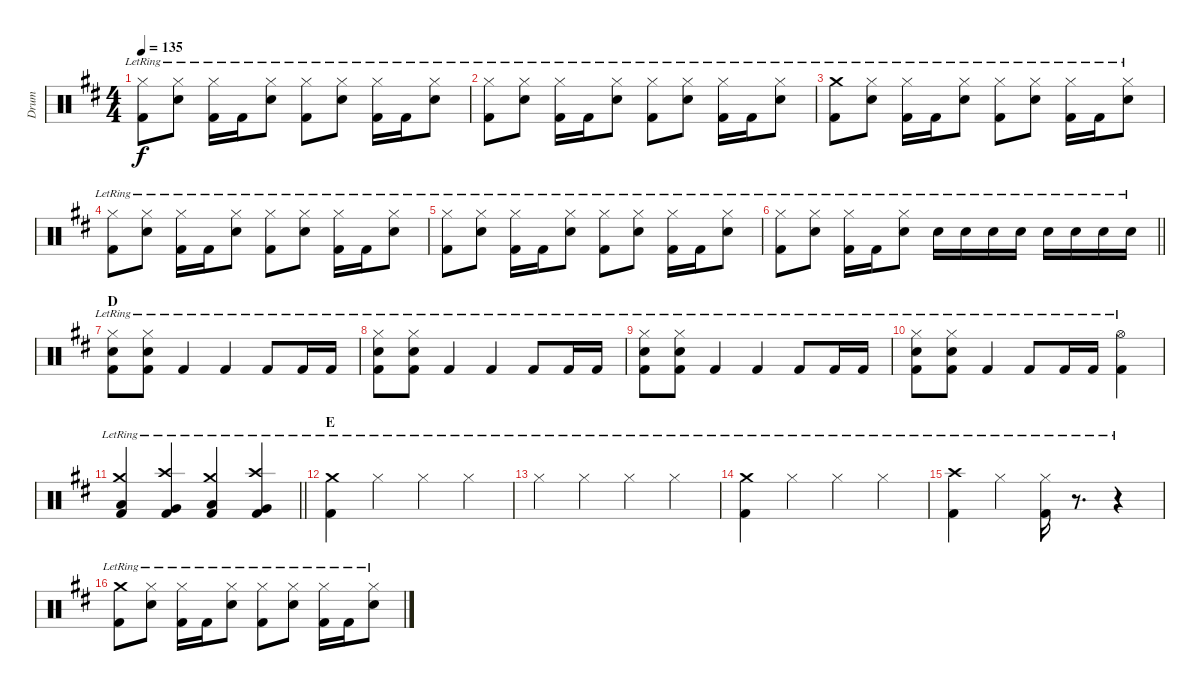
\track ("Drum" "Drum") {instrument percussion}
\staff {score}
\articulation defaults
\ts (4 4)
\tempo 135
\clef neutral
\ks bminor
("Hi-Hat (closed)"{lr} "Kick (hit) 2"{lr}).8{dy f} ("Hi-Hat (closed)"{lr} "Snare (hit) 2"{lr}).8 ("Hi-Hat (closed)"{lr} "Kick (hit) 2"{lr}).16 "Kick (hit) 2"{lr}.16 ("Hi-Hat (closed)"{lr} "Snare (hit) 2"{lr}).8 ("Hi-Hat (closed)"{lr} "Kick (hit) 2"{lr}).8 ("Hi-Hat (closed)"{lr} "Snare (hit) 2"{lr}).8 ("Hi-Hat (closed)"{lr} "Kick (hit) 2"{lr}).16 "Kick (hit) 2"{lr}.16 ("Hi-Hat (closed)"{lr} "Snare (hit) 2"{lr}).8 |
("Hi-Hat (closed)"{lr} "Kick (hit) 2"{lr}).8 ("Hi-Hat (closed)"{lr} "Snare (hit) 2"{lr}).8 ("Hi-Hat (closed)"{lr} "Kick (hit) 2"{lr}).16 "Kick (hit) 2"{lr}.16 ("Hi-Hat (closed)"{lr} "Snare (hit) 2"{lr}).8 ("Hi-Hat (closed)"{lr} "Kick (hit) 2"{lr}).8 ("Hi-Hat (closed)"{lr} "Snare (hit) 2"{lr}).8 ("Hi-Hat (closed)"{lr} "Kick (hit) 2"{lr}).16 "Kick (hit) 2"{lr}.16 ("Hi-Hat (closed)"{lr} "Snare (hit) 2"{lr}).8 |
("Crash medium (hit)"{lr} "Kick (hit) 2"{lr}).8 ("Hi-Hat (closed)"{lr} "Snare (hit) 2"{lr}).8 ("Hi-Hat (closed)"{lr} "Kick (hit) 2"{lr}).16 "Kick (hit) 2"{lr}.16 ("Hi-Hat (closed)"{lr} "Snare (hit) 2"{lr}).8 ("Hi-Hat (closed)"{lr} "Kick (hit) 2"{lr}).8 ("Hi-Hat (closed)"{lr} "Snare (hit) 2"{lr}).8 ("Hi-Hat (closed)"{lr} "Kick (hit) 2"{lr}).16 "Kick (hit) 2"{lr}.16 ("Hi-Hat (closed)"{lr} "Snare (hit) 2"{lr}).8 |
("Hi-Hat (closed)"{lr} "Kick (hit) 2"{lr}).8 ("Hi-Hat (closed)"{lr} "Snare (hit) 2"{lr}).8 ("Hi-Hat (closed)"{lr} "Kick (hit) 2"{lr}).16 "Kick (hit) 2"{lr}.16 ("Hi-Hat (closed)"{lr} "Snare (hit) 2"{lr}).8 ("Hi-Hat (closed)"{lr} "Kick (hit) 2"{lr}).8 ("Hi-Hat (closed)"{lr} "Snare (hit) 2"{lr}).8 ("Hi-Hat (closed)"{lr} "Kick (hit) 2"{lr}).16 "Kick (hit) 2"{lr}.16 ("Hi-Hat (closed)"{lr} "Snare (hit) 2"{lr}).8 |
("Hi-Hat (closed)"{lr} "Kick (hit) 2"{lr}).8 ("Hi-Hat (closed)"{lr} "Snare (hit) 2"{lr}).8 ("Hi-Hat (closed)"{lr} "Kick (hit) 2"{lr}).16 "Kick (hit) 2"{lr}.16 ("Hi-Hat (closed)"{lr} "Snare (hit) 2"{lr}).8 ("Hi-Hat (closed)"{lr} "Kick (hit) 2"{lr}).8 ("Hi-Hat (closed)"{lr} "Snare (hit) 2"{lr}).8 ("Hi-Hat (closed)"{lr} "Kick (hit) 2"{lr}).16 "Kick (hit) 2"{lr}.16 ("Hi-Hat (closed)"{lr} "Snare (hit) 2"{lr}).8 |
\barLineRight lightlight
("Hi-Hat (closed)"{lr} "Kick (hit) 2"{lr}).8 ("Hi-Hat (closed)"{lr} "Snare (hit) 2"{lr}).8 ("Hi-Hat (closed)"{lr} "Kick (hit) 2"{lr}).16 "Kick (hit) 2"{lr}.16 ("Hi-Hat (closed)"{lr} "Snare (hit) 2"{lr}).8 "Snare (hit) 2"{lr}.16 "Snare (hit) 2"{lr}.16 "Snare (hit) 2"{lr}.16 "Snare (hit) 2"{lr}.16 "Snare (hit) 2"{lr}.16 "Snare (hit) 2"{lr}.16 "Snare (hit) 2"{lr}.16 "Snare (hit) 2"{lr}.16 |
\section ("" "D")
("Hi-Hat (closed)"{lr} "Snare (hit) 2"{lr} "Kick (hit) 2"{lr}).8 ("Hi-Hat (closed)"{lr} "Snare (hit) 2"{lr} "Kick (hit) 2"{lr}).8 "Kick (hit) 2"{lr}.4 "Kick (hit) 2"{lr}.4 "Kick (hit) 2"{lr}.8 "Kick (hit) 2"{lr}.16 "Kick (hit) 2"{lr}.16 |
("Hi-Hat (closed)"{lr} "Snare (hit) 2"{lr} "Kick (hit) 2"{lr}).8 ("Hi-Hat (closed)"{lr} "Snare (hit) 2"{lr} "Kick (hit) 2"{lr}).8 "Kick (hit) 2"{lr}.4 "Kick (hit) 2"{lr}.4 "Kick (hit) 2"{lr}.8 "Kick (hit) 2"{lr}.16 "Kick (hit) 2"{lr}.16 |
("Hi-Hat (closed)"{lr} "Snare (hit) 2"{lr} "Kick (hit) 2"{lr}).8 ("Hi-Hat (closed)"{lr} "Snare (hit) 2"{lr} "Kick (hit) 2"{lr}).8 "Kick (hit) 2"{lr}.4 "Kick (hit) 2"{lr}.4 "Kick (hit) 2"{lr}.8 "Kick (hit) 2"{lr}.16 "Kick (hit) 2"{lr}.16 |
("Hi-Hat (closed)"{lr} "Snare (hit) 2"{lr} "Kick (hit) 2"{lr}).8 ("Hi-Hat (closed)"{lr} "Snare (hit) 2"{lr} "Kick (hit) 2"{lr}).8 "Kick (hit) 2"{lr}.4 "Kick (hit) 2"{lr}.8 "Kick (hit) 2"{lr}.16 "Kick (hit) 2"{lr}.16 ("Hi-Hat (open)"{lr} "Kick (hit) 2"{lr}).4 |
\barLineRight lightlight
("Crash medium (hit)"{lr} "Low Floor Tom (hit)"{lr} "Kick (hit) 2"{lr}).4 ("Crash high (hit)"{lr} "Very Low Tom (hit)"{lr} "Kick (hit) 2"{lr}).4 ("Crash medium (hit)"{lr} "Low Tom (hit)"{lr} "Kick (hit) 2"{lr}).4 ("Crash high (hit)"{lr} "Very Low Tom (hit)"{lr} "Kick (hit) 2"{lr}).4 |
\section ("" "E")
("Crash medium (hit)"{lr} "Kick (hit) 2"{lr}).4 "Hi-Hat (closed)"{lr}.4 "Hi-Hat (closed)"{lr}.4 "Hi-Hat (closed)"{lr}.4 |
"Hi-Hat (closed)"{lr}.4 "Hi-Hat (closed)"{lr}.4 "Hi-Hat (closed)"{lr}.4 "Hi-Hat (closed)"{lr}.4 |
("Crash medium (hit)"{lr} "Kick (hit) 2"{lr}).4 "Hi-Hat (closed)"{lr}.4 "Hi-Hat (closed)"{lr}.4 "Hi-Hat (closed)"{lr}.4 |
("Crash high (hit)"{lr} "Kick (hit) 2"{lr}).4 "Hi-Hat (closed)"{lr}.4 ("Hi-Hat (closed)"{lr} "Kick (hit) 2"{lr}).16 r.8{d} r.4 |
("Crash medium (hit)"{lr} "Kick (hit) 2"{lr}).8 ("Hi-Hat (closed)"{lr} "Snare (hit) 2"{lr}).8 ("Hi-Hat (closed)"{lr} "Kick (hit) 2"{lr}).16 "Kick (hit) 2"{lr}.16 ("Hi-Hat (closed)"{lr} "Snare (hit) 2"{lr}).8 ("Hi-Hat (closed)"{lr} "Kick (hit) 2"{lr}).8 ("Hi-Hat (closed)"{lr} "Snare (hit) 2"{lr}).8 ("Hi-Hat (closed)"{lr} "Kick (hit) 2"{lr}).16 "Kick (hit) 2"{lr}.16 ("Hi-Hat (closed)"{lr} "Snare (hit) 2"{lr}).8
